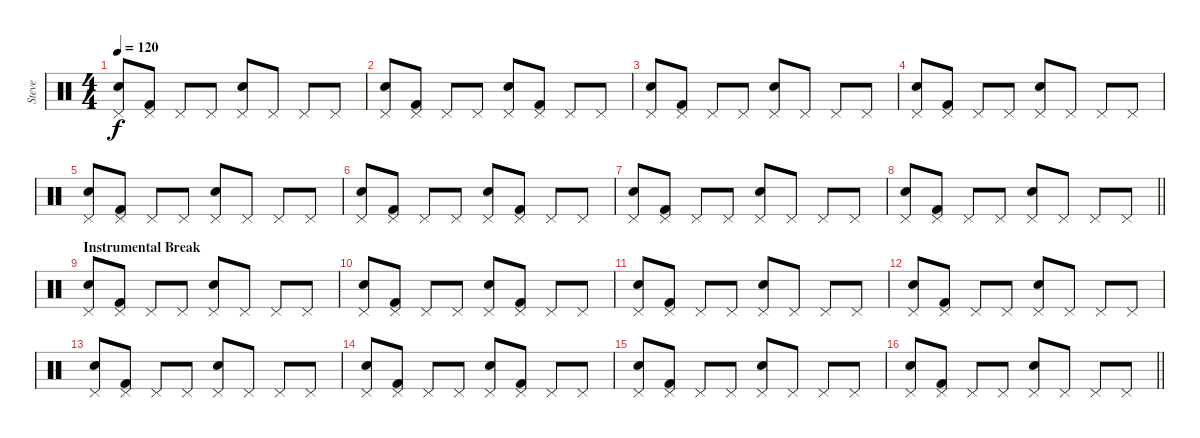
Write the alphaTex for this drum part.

\track ("Steve" "Steve") {instrument percussion}
\staff {score}
\articulation defaults
\ts (4 4)
\tempo 120
\clef neutral
\ks c
("Pedal Hi-Hat (hit)" "Electric Snare (hit)").8{dy f} ("Pedal Hi-Hat (hit)" "Kick (hit) 2").8 "Pedal Hi-Hat (hit)".8 "Pedal Hi-Hat (hit)".8 ("Pedal Hi-Hat (hit)" "Electric Snare (hit)").8 "Pedal Hi-Hat (hit)".8 "Pedal Hi-Hat (hit)".8 "Pedal Hi-Hat (hit)".8 |
("Pedal Hi-Hat (hit)" "Electric Snare (hit)").8 ("Pedal Hi-Hat (hit)" "Kick (hit) 2").8 "Pedal Hi-Hat (hit)".8 "Pedal Hi-Hat (hit)".8 ("Pedal Hi-Hat (hit)" "Electric Snare (hit)").8 ("Pedal Hi-Hat (hit)" "Kick (hit) 2").8 "Pedal Hi-Hat (hit)".8 "Pedal Hi-Hat (hit)".8 |
("Pedal Hi-Hat (hit)" "Electric Snare (hit)").8 ("Pedal Hi-Hat (hit)" "Kick (hit) 2").8 "Pedal Hi-Hat (hit)".8 "Pedal Hi-Hat (hit)".8 ("Pedal Hi-Hat (hit)" "Electric Snare (hit)").8 "Pedal Hi-Hat (hit)".8 "Pedal Hi-Hat (hit)".8 "Pedal Hi-Hat (hit)".8 |
("Pedal Hi-Hat (hit)" "Electric Snare (hit)").8 ("Pedal Hi-Hat (hit)" "Kick (hit) 2").8 "Pedal Hi-Hat (hit)".8 "Pedal Hi-Hat (hit)".8 ("Pedal Hi-Hat (hit)" "Electric Snare (hit)").8 "Pedal Hi-Hat (hit)".8 "Pedal Hi-Hat (hit)".8 "Pedal Hi-Hat (hit)".8 |
("Pedal Hi-Hat (hit)" "Electric Snare (hit)").8 ("Pedal Hi-Hat (hit)" "Kick (hit) 2").8 "Pedal Hi-Hat (hit)".8 "Pedal Hi-Hat (hit)".8 ("Pedal Hi-Hat (hit)" "Electric Snare (hit)").8 "Pedal Hi-Hat (hit)".8 "Pedal Hi-Hat (hit)".8 "Pedal Hi-Hat (hit)".8 |
("Pedal Hi-Hat (hit)" "Electric Snare (hit)").8 ("Pedal Hi-Hat (hit)" "Kick (hit) 2").8 "Pedal Hi-Hat (hit)".8 "Pedal Hi-Hat (hit)".8 ("Pedal Hi-Hat (hit)" "Electric Snare (hit)").8 ("Pedal Hi-Hat (hit)" "Kick (hit) 2").8 "Pedal Hi-Hat (hit)".8 "Pedal Hi-Hat (hit)".8 |
("Pedal Hi-Hat (hit)" "Electric Snare (hit)").8 ("Pedal Hi-Hat (hit)" "Kick (hit) 2").8 "Pedal Hi-Hat (hit)".8 "Pedal Hi-Hat (hit)".8 ("Pedal Hi-Hat (hit)" "Electric Snare (hit)").8 "Pedal Hi-Hat (hit)".8 "Pedal Hi-Hat (hit)".8 "Pedal Hi-Hat (hit)".8 |
\barLineRight lightlight
("Pedal Hi-Hat (hit)" "Electric Snare (hit)").8 ("Pedal Hi-Hat (hit)" "Kick (hit) 2").8 "Pedal Hi-Hat (hit)".8 "Pedal Hi-Hat (hit)".8 ("Pedal Hi-Hat (hit)" "Electric Snare (hit)").8 "Pedal Hi-Hat (hit)".8 "Pedal Hi-Hat (hit)".8 "Pedal Hi-Hat (hit)".8 |
\section ("" "Instrumental Break")
("Pedal Hi-Hat (hit)" "Electric Snare (hit)").8 ("Pedal Hi-Hat (hit)" "Kick (hit) 2").8 "Pedal Hi-Hat (hit)".8 "Pedal Hi-Hat (hit)".8 ("Pedal Hi-Hat (hit)" "Electric Snare (hit)").8 "Pedal Hi-Hat (hit)".8 "Pedal Hi-Hat (hit)".8 "Pedal Hi-Hat (hit)".8 |
("Pedal Hi-Hat (hit)" "Electric Snare (hit)").8 ("Pedal Hi-Hat (hit)" "Kick (hit) 2").8 "Pedal Hi-Hat (hit)".8 "Pedal Hi-Hat (hit)".8 ("Pedal Hi-Hat (hit)" "Electric Snare (hit)").8 ("Pedal Hi-Hat (hit)" "Kick (hit) 2").8 "Pedal Hi-Hat (hit)".8 "Pedal Hi-Hat (hit)".8 |
("Pedal Hi-Hat (hit)" "Electric Snare (hit)").8 ("Pedal Hi-Hat (hit)" "Kick (hit) 2").8 "Pedal Hi-Hat (hit)".8 "Pedal Hi-Hat (hit)".8 ("Pedal Hi-Hat (hit)" "Electric Snare (hit)").8 "Pedal Hi-Hat (hit)".8 "Pedal Hi-Hat (hit)".8 "Pedal Hi-Hat (hit)".8 |
("Pedal Hi-Hat (hit)" "Electric Snare (hit)").8 ("Pedal Hi-Hat (hit)" "Kick (hit) 2").8 "Pedal Hi-Hat (hit)".8 "Pedal Hi-Hat (hit)".8 ("Pedal Hi-Hat (hit)" "Electric Snare (hit)").8 "Pedal Hi-Hat (hit)".8 "Pedal Hi-Hat (hit)".8 "Pedal Hi-Hat (hit)".8 |
("Pedal Hi-Hat (hit)" "Electric Snare (hit)").8 ("Pedal Hi-Hat (hit)" "Kick (hit) 2").8 "Pedal Hi-Hat (hit)".8 "Pedal Hi-Hat (hit)".8 ("Pedal Hi-Hat (hit)" "Electric Snare (hit)").8 "Pedal Hi-Hat (hit)".8 "Pedal Hi-Hat (hit)".8 "Pedal Hi-Hat (hit)".8 |
("Pedal Hi-Hat (hit)" "Electric Snare (hit)").8 ("Pedal Hi-Hat (hit)" "Kick (hit) 2").8 "Pedal Hi-Hat (hit)".8 "Pedal Hi-Hat (hit)".8 ("Pedal Hi-Hat (hit)" "Electric Snare (hit)").8 ("Pedal Hi-Hat (hit)" "Kick (hit) 2").8 "Pedal Hi-Hat (hit)".8 "Pedal Hi-Hat (hit)".8 |
("Pedal Hi-Hat (hit)" "Electric Snare (hit)").8 ("Pedal Hi-Hat (hit)" "Kick (hit) 2").8 "Pedal Hi-Hat (hit)".8 "Pedal Hi-Hat (hit)".8 ("Pedal Hi-Hat (hit)" "Electric Snare (hit)").8 "Pedal Hi-Hat (hit)".8 "Pedal Hi-Hat (hit)".8 "Pedal Hi-Hat (hit)".8 |
\barLineRight lightlight
("Pedal Hi-Hat (hit)" "Electric Snare (hit)").8 ("Pedal Hi-Hat (hit)" "Kick (hit) 2").8 "Pedal Hi-Hat (hit)".8 "Pedal Hi-Hat (hit)".8 ("Pedal Hi-Hat (hit)" "Electric Snare (hit)").8 "Pedal Hi-Hat (hit)".8 "Pedal Hi-Hat (hit)".8 "Pedal Hi-Hat (hit)".8
